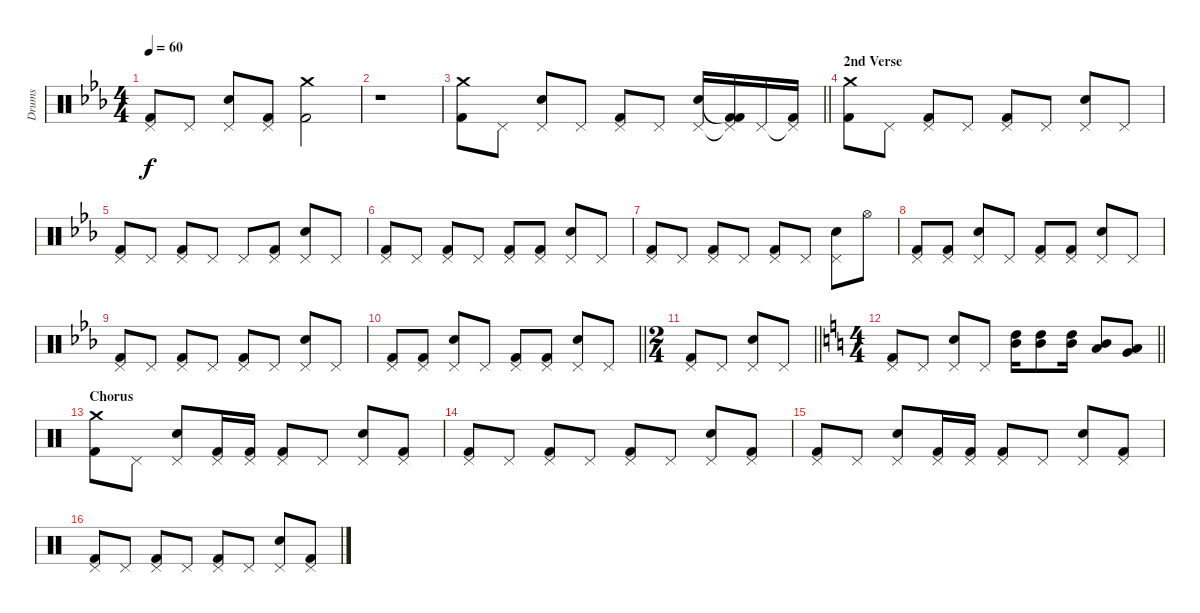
\track ("Drums" "Drums") {instrument percussion}
\staff {score}
\articulation defaults
\ts (4 4)
\tempo 60
\clef neutral
\ks cminor
("Pedal Hi-Hat (hit)" "Kick (hit) 2").8{dy f} "Pedal Hi-Hat (hit)".8 ("Pedal Hi-Hat (hit)" "Snare (hit) 2").8 ("Pedal Hi-Hat (hit)" "Kick (hit) 2").8 ("Crash medium (hit)" "Kick (hit) 2").2 |
r.1 |
\barLineRight lightlight
("Crash medium (hit)" "Kick (hit) 2").8 "Pedal Hi-Hat (hit)".8 ("Pedal Hi-Hat (hit)" "Snare (hit) 2").8 "Pedal Hi-Hat (hit)".8 ("Pedal Hi-Hat (hit)" "Kick (hit) 2").8 "Pedal Hi-Hat (hit)".8 ("Pedal Hi-Hat (hit)" "Snare (hit) 2").16 ("Pedal Hi-Hat (hit)"{t} "Kick (hit) 2"{t} "Kick (hit) 2").16 "Pedal Hi-Hat (hit)".16 ("Pedal Hi-Hat (hit)"{t} "Kick (hit) 2").16 |
\section ("" "2nd Verse")
("Crash medium (hit)" "Kick (hit) 2").8 "Pedal Hi-Hat (hit)".8 ("Pedal Hi-Hat (hit)" "Kick (hit) 2").8 "Pedal Hi-Hat (hit)".8 ("Pedal Hi-Hat (hit)" "Kick (hit) 2").8 "Pedal Hi-Hat (hit)".8 ("Pedal Hi-Hat (hit)" "Snare (hit) 2").8 "Pedal Hi-Hat (hit)".8 |
("Pedal Hi-Hat (hit)" "Kick (hit) 2").8 "Pedal Hi-Hat (hit)".8 ("Pedal Hi-Hat (hit)" "Kick (hit) 2").8 "Pedal Hi-Hat (hit)".8 "Pedal Hi-Hat (hit)".8 ("Pedal Hi-Hat (hit)" "Kick (hit) 2").8 ("Pedal Hi-Hat (hit)" "Snare (hit) 2").8 "Pedal Hi-Hat (hit)".8 |
("Pedal Hi-Hat (hit)" "Kick (hit) 2").8 "Pedal Hi-Hat (hit)".8 ("Pedal Hi-Hat (hit)" "Kick (hit) 2").8 "Pedal Hi-Hat (hit)".8 ("Pedal Hi-Hat (hit)" "Kick (hit) 2").8 ("Pedal Hi-Hat (hit)" "Kick (hit) 2").8 ("Pedal Hi-Hat (hit)" "Snare (hit) 2").8 "Pedal Hi-Hat (hit)".8 |
("Pedal Hi-Hat (hit)" "Kick (hit) 2").8 "Pedal Hi-Hat (hit)".8 ("Pedal Hi-Hat (hit)" "Kick (hit) 2").8 "Pedal Hi-Hat (hit)".8 ("Pedal Hi-Hat (hit)" "Kick (hit) 2").8 "Pedal Hi-Hat (hit)".8 ("Pedal Hi-Hat (hit)" "Snare (hit) 2").8 "Hi-Hat (open)".8 |
("Pedal Hi-Hat (hit)" "Kick (hit) 2").8 ("Pedal Hi-Hat (hit)" "Kick (hit) 2").8 ("Pedal Hi-Hat (hit)" "Snare (hit) 2").8 "Pedal Hi-Hat (hit)".8 ("Pedal Hi-Hat (hit)" "Kick (hit) 2").8 ("Pedal Hi-Hat (hit)" "Kick (hit) 2").8 ("Pedal Hi-Hat (hit)" "Snare (hit) 2").8 "Pedal Hi-Hat (hit)".8 |
("Pedal Hi-Hat (hit)" "Kick (hit) 2").8 "Pedal Hi-Hat (hit)".8 ("Pedal Hi-Hat (hit)" "Kick (hit) 2").8 "Pedal Hi-Hat (hit)".8 ("Pedal Hi-Hat (hit)" "Kick (hit) 2").8 "Pedal Hi-Hat (hit)".8 ("Pedal Hi-Hat (hit)" "Snare (hit) 2").8 "Pedal Hi-Hat (hit)".8 |
\barLineRight lightlight
("Pedal Hi-Hat (hit)" "Kick (hit) 2").8 ("Pedal Hi-Hat (hit)" "Kick (hit) 2").8 ("Pedal Hi-Hat (hit)" "Snare (hit) 2").8 "Pedal Hi-Hat (hit)".8 ("Pedal Hi-Hat (hit)" "Kick (hit) 2").8 ("Pedal Hi-Hat (hit)" "Kick (hit) 2").8 ("Pedal Hi-Hat (hit)" "Snare (hit) 2").8 "Pedal Hi-Hat (hit)".8 |
\ts (2 4)
\barLineRight lightlight
("Pedal Hi-Hat (hit)" "Kick (hit) 2").8 "Pedal Hi-Hat (hit)".8 ("Pedal Hi-Hat (hit)" "Snare (hit) 2").8 "Pedal Hi-Hat (hit)".8 |
\ts (4 4)
\barLineRight lightlight
\ks c
("Pedal Hi-Hat (hit)" "Kick (hit) 2").8 "Pedal Hi-Hat (hit)".8 ("Pedal Hi-Hat (hit)" "Snare (hit) 2").8 "Pedal Hi-Hat (hit)".8 ("High Tom (hit)" "Mid Tom (hit)").16 ("High Tom (hit)" "Mid Tom (hit)").8 ("High Tom (hit)" "Mid Tom (hit)").16 ("Mid Tom (hit)" "Low Tom (hit)").8 ("Low Tom (hit)" "Very Low Tom (hit)").8 |
\section ("" "Chorus")
("Crash medium (hit)" "Kick (hit) 2").8 "Pedal Hi-Hat (hit)".8 ("Pedal Hi-Hat (hit)" "Snare (hit) 2").8 ("Pedal Hi-Hat (hit)" "Kick (hit) 2").16 ("Pedal Hi-Hat (hit)" "Kick (hit) 2").16 ("Pedal Hi-Hat (hit)" "Kick (hit) 2").8 "Pedal Hi-Hat (hit)".8 ("Pedal Hi-Hat (hit)" "Snare (hit) 2").8 ("Pedal Hi-Hat (hit)" "Kick (hit) 2").8 |
("Pedal Hi-Hat (hit)" "Kick (hit) 2").8 "Pedal Hi-Hat (hit)".8 ("Pedal Hi-Hat (hit)" "Kick (hit) 2").8 "Pedal Hi-Hat (hit)".8 ("Pedal Hi-Hat (hit)" "Kick (hit) 2").8 "Pedal Hi-Hat (hit)".8 ("Pedal Hi-Hat (hit)" "Snare (hit) 2").8 ("Pedal Hi-Hat (hit)" "Kick (hit) 2").8 |
("Pedal Hi-Hat (hit)" "Kick (hit) 2").8 "Pedal Hi-Hat (hit)".8 ("Pedal Hi-Hat (hit)" "Snare (hit) 2").8 ("Pedal Hi-Hat (hit)" "Kick (hit) 2").16 ("Pedal Hi-Hat (hit)" "Kick (hit) 2").16 ("Pedal Hi-Hat (hit)" "Kick (hit) 2").8 "Pedal Hi-Hat (hit)".8 ("Pedal Hi-Hat (hit)" "Snare (hit) 2").8 ("Pedal Hi-Hat (hit)" "Kick (hit) 2").8 |
("Pedal Hi-Hat (hit)" "Kick (hit) 2").8 "Pedal Hi-Hat (hit)".8 ("Pedal Hi-Hat (hit)" "Kick (hit) 2").8 "Pedal Hi-Hat (hit)".8 ("Pedal Hi-Hat (hit)" "Kick (hit) 2").8 "Pedal Hi-Hat (hit)".8 ("Pedal Hi-Hat (hit)" "Snare (hit) 2").8 ("Pedal Hi-Hat (hit)" "Kick (hit) 2").8
